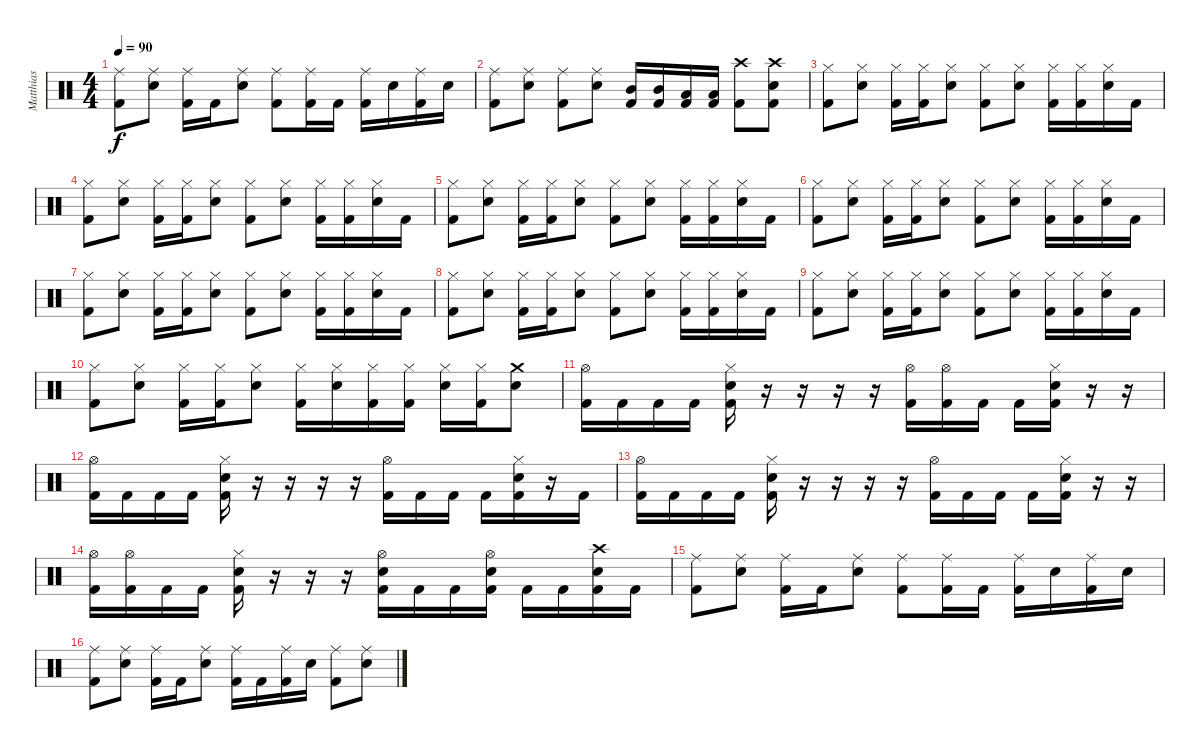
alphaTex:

\track ("Matthias" "Matthias") {instrument percussion}
\staff {score}
\articulation defaults
\ts (4 4)
\tempo 90
\clef neutral
\ks c
("Kick (hit) 2" "Ride (middle)").8{dy f} ("Snare (hit) 2" "Ride (middle)").8 ("Kick (hit) 2" "Ride (middle)").16 "Kick (hit) 2".16 ("Snare (hit) 2" "Ride (middle)").8 ("Kick (hit) 2" "Ride (middle)").8 ("Kick (hit) 2" "Ride (middle)").16 "Kick (hit) 2".16 ("Kick (hit) 2" "Ride (middle)").16 "Snare (hit) 2".16 ("Kick (hit) 2" "Ride (middle)").16 "Snare (hit) 2".16 |
("Kick (hit) 2" "Ride (middle)").8 ("Snare (hit) 2" "Ride (middle)").8 ("Kick (hit) 2" "Ride (middle)").8 ("Snare (hit) 2" "Ride (middle)").8 ("Kick (hit) 2" "Mid Tom (hit)").16 ("Kick (hit) 2" "Mid Tom (hit)").16 ("Kick (hit) 2" "Low Tom (hit)").16 ("Kick (hit) 2" "Low Tom (hit)").16 ("Kick (hit) 2" "Crash high (hit)").8 ("Kick (hit) 2" "Snare (hit) 2" "Crash high (hit)").8 |
("Kick (hit) 2" "Hi-Hat (closed)").8 ("Snare (hit) 2" "Hi-Hat (closed)").8 ("Kick (hit) 2" "Hi-Hat (closed)").16 ("Kick (hit) 2" "Hi-Hat (closed)").16 ("Snare (hit) 2" "Hi-Hat (closed)").8 ("Kick (hit) 2" "Hi-Hat (closed)").8 ("Snare (hit) 2" "Hi-Hat (closed)").8 ("Kick (hit) 2" "Hi-Hat (closed)").16 ("Kick (hit) 2" "Hi-Hat (closed)").16 ("Snare (hit) 2" "Hi-Hat (closed)").16 "Kick (hit) 2".16 |
("Kick (hit) 2" "Hi-Hat (closed)").8 ("Snare (hit) 2" "Hi-Hat (closed)").8 ("Kick (hit) 2" "Hi-Hat (closed)").16 ("Kick (hit) 2" "Hi-Hat (closed)").16 ("Snare (hit) 2" "Hi-Hat (closed)").8 ("Kick (hit) 2" "Hi-Hat (closed)").8 ("Snare (hit) 2" "Hi-Hat (closed)").8 ("Kick (hit) 2" "Hi-Hat (closed)").16 ("Kick (hit) 2" "Hi-Hat (closed)").16 ("Snare (hit) 2" "Hi-Hat (closed)").16 "Kick (hit) 2".16 |
("Kick (hit) 2" "Hi-Hat (closed)").8 ("Snare (hit) 2" "Hi-Hat (closed)").8 ("Kick (hit) 2" "Hi-Hat (closed)").16 ("Kick (hit) 2" "Hi-Hat (closed)").16 ("Snare (hit) 2" "Hi-Hat (closed)").8 ("Kick (hit) 2" "Hi-Hat (closed)").8 ("Snare (hit) 2" "Hi-Hat (closed)").8 ("Kick (hit) 2" "Hi-Hat (closed)").16 ("Kick (hit) 2" "Hi-Hat (closed)").16 ("Snare (hit) 2" "Hi-Hat (closed)").16 "Kick (hit) 2".16 |
("Kick (hit) 2" "Hi-Hat (closed)").8 ("Snare (hit) 2" "Hi-Hat (closed)").8 ("Kick (hit) 2" "Hi-Hat (closed)").16 ("Kick (hit) 2" "Hi-Hat (closed)").16 ("Snare (hit) 2" "Hi-Hat (closed)").8 ("Kick (hit) 2" "Hi-Hat (closed)").8 ("Snare (hit) 2" "Hi-Hat (closed)").8 ("Kick (hit) 2" "Hi-Hat (closed)").16 ("Kick (hit) 2" "Hi-Hat (closed)").16 ("Snare (hit) 2" "Hi-Hat (closed)").16 "Kick (hit) 2".16 |
("Kick (hit) 2" "Hi-Hat (closed)").8 ("Snare (hit) 2" "Hi-Hat (closed)").8 ("Kick (hit) 2" "Hi-Hat (closed)").16 ("Kick (hit) 2" "Hi-Hat (closed)").16 ("Snare (hit) 2" "Hi-Hat (closed)").8 ("Kick (hit) 2" "Hi-Hat (closed)").8 ("Snare (hit) 2" "Hi-Hat (closed)").8 ("Kick (hit) 2" "Hi-Hat (closed)").16 ("Kick (hit) 2" "Hi-Hat (closed)").16 ("Snare (hit) 2" "Hi-Hat (closed)").16 "Kick (hit) 2".16 |
("Kick (hit) 2" "Hi-Hat (closed)").8 ("Snare (hit) 2" "Hi-Hat (closed)").8 ("Kick (hit) 2" "Hi-Hat (closed)").16 ("Kick (hit) 2" "Hi-Hat (closed)").16 ("Snare (hit) 2" "Hi-Hat (closed)").8 ("Kick (hit) 2" "Hi-Hat (closed)").8 ("Snare (hit) 2" "Hi-Hat (closed)").8 ("Kick (hit) 2" "Hi-Hat (closed)").16 ("Kick (hit) 2" "Hi-Hat (closed)").16 ("Snare (hit) 2" "Hi-Hat (closed)").16 "Kick (hit) 2".16 |
("Kick (hit) 2" "Hi-Hat (closed)").8 ("Snare (hit) 2" "Hi-Hat (closed)").8 ("Kick (hit) 2" "Hi-Hat (closed)").16 ("Kick (hit) 2" "Hi-Hat (closed)").16 ("Snare (hit) 2" "Hi-Hat (closed)").8 ("Kick (hit) 2" "Hi-Hat (closed)").8 ("Snare (hit) 2" "Hi-Hat (closed)").8 ("Kick (hit) 2" "Hi-Hat (closed)").16 ("Kick (hit) 2" "Hi-Hat (closed)").16 ("Snare (hit) 2" "Hi-Hat (closed)").16 "Kick (hit) 2".16 |
("Kick (hit) 2" "Hi-Hat (closed)").8 ("Snare (hit) 2" "Hi-Hat (closed)").8 ("Kick (hit) 2" "Hi-Hat (closed)").16 ("Kick (hit) 2" "Hi-Hat (closed)").16 ("Snare (hit) 2" "Hi-Hat (closed)").8 ("Kick (hit) 2" "Hi-Hat (closed)").16 ("Snare (hit) 2" "Hi-Hat (closed)").16 ("Kick (hit) 2" "Hi-Hat (closed)").16 ("Kick (hit) 2" "Hi-Hat (closed)").16 ("Snare (hit) 2" "Hi-Hat (closed)").16 ("Kick (hit) 2" "Hi-Hat (closed)").16 ("Snare (hit) 2" "Crash medium (hit)").8 |
("Kick (hit) 2" "Hi-Hat (open)").16 "Kick (hit) 2".16 "Kick (hit) 2".16 "Kick (hit) 2".16 ("Kick (hit) 2" "Snare (hit) 2" "Hi-Hat (closed)").16 r.16 r.16 r.16 r.16 ("Kick (hit) 2" "Hi-Hat (open)").16 ("Kick (hit) 2" "Hi-Hat (open)").16 "Kick (hit) 2".16 "Kick (hit) 2".16 ("Kick (hit) 2" "Snare (hit) 2" "Hi-Hat (closed)").16 r.16 r.16 |
("Kick (hit) 2" "Hi-Hat (open)").16 "Kick (hit) 2".16 "Kick (hit) 2".16 "Kick (hit) 2".16 ("Kick (hit) 2" "Snare (hit) 2" "Hi-Hat (closed)").16 r.16 r.16 r.16 r.16 ("Kick (hit) 2" "Hi-Hat (open)").16 "Kick (hit) 2".16 "Kick (hit) 2".16 "Kick (hit) 2".16 ("Kick (hit) 2" "Snare (hit) 2" "Hi-Hat (closed)").16 r.16 "Kick (hit) 2".16 |
("Kick (hit) 2" "Hi-Hat (open)").16 "Kick (hit) 2".16 "Kick (hit) 2".16 "Kick (hit) 2".16 ("Kick (hit) 2" "Snare (hit) 2" "Hi-Hat (closed)").16 r.16 r.16 r.16 r.16 ("Kick (hit) 2" "Hi-Hat (open)").16 "Kick (hit) 2".16 "Kick (hit) 2".16 "Kick (hit) 2".16 ("Kick (hit) 2" "Snare (hit) 2" "Hi-Hat (closed)").16 r.16 r.16 |
("Kick (hit) 2" "Hi-Hat (open)").16 ("Kick (hit) 2" "Hi-Hat (open)").16 "Kick (hit) 2".16 "Kick (hit) 2".16 ("Kick (hit) 2" "Snare (hit) 2" "Hi-Hat (closed)").16 r.16 r.16 r.16 ("Kick (hit) 2" "Snare (hit) 2" "Hi-Hat (open)").16 "Kick (hit) 2".16 "Kick (hit) 2".16 ("Kick (hit) 2" "Snare (hit) 2" "Hi-Hat (open)").16 "Kick (hit) 2".16 "Kick (hit) 2".16 ("Kick (hit) 2" "Snare (hit) 2" "Crash high (hit)").16 "Kick (hit) 2".16 |
("Kick (hit) 2" "Ride (middle)").8 ("Snare (hit) 2" "Ride (middle)").8 ("Kick (hit) 2" "Ride (middle)").16 "Kick (hit) 2".16 ("Snare (hit) 2" "Ride (middle)").8 ("Kick (hit) 2" "Ride (middle)").8 ("Kick (hit) 2" "Ride (middle)").16 "Kick (hit) 2".16 ("Kick (hit) 2" "Ride (middle)").16 "Snare (hit) 2".16 ("Kick (hit) 2" "Ride (middle)").16 "Snare (hit) 2".16 |
("Kick (hit) 2" "Ride (middle)").8 ("Snare (hit) 2" "Ride (middle)").8 ("Kick (hit) 2" "Ride (middle)").16 "Kick (hit) 2".16 ("Snare (hit) 2" "Ride (middle)").8 ("Kick (hit) 2" "Ride (middle)").16 "Kick (hit) 2".16 ("Kick (hit) 2" "Ride (middle)").16 "Snare (hit) 2".16 ("Kick (hit) 2" "Ride (middle)").8 ("Snare (hit) 2" "Ride (middle)").8
